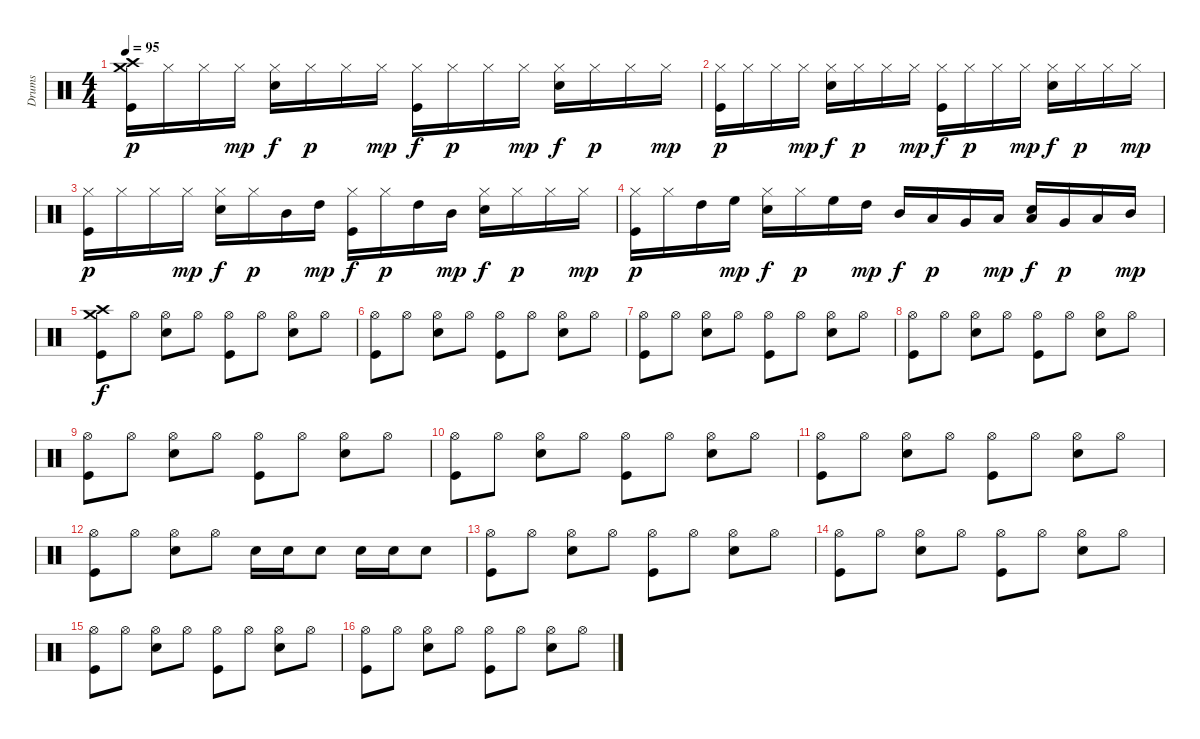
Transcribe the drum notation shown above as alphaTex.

\track ("Drums" "Drums") {instrument percussion}
\staff {score}
\articulation defaults
\ts (4 4)
\tempo 95
\clef neutral
\ks c
("Crash medium (hit)" "Crash high (hit)" "Kick (hit)").16{dy p} "Hi-Hat (closed)".16 "Hi-Hat (closed)".16 "Hi-Hat (closed)".16{dy mp} ("Hi-Hat (closed)" "Snare (hit) 2").16{dy f} "Hi-Hat (closed)".16{dy p} "Hi-Hat (closed)".16 "Hi-Hat (closed)".16{dy mp} ("Hi-Hat (closed)" "Kick (hit)").16{dy f} "Hi-Hat (closed)".16{dy p} "Hi-Hat (closed)".16 "Hi-Hat (closed)".16{dy mp} ("Hi-Hat (closed)" "Snare (hit) 2").16{dy f} "Hi-Hat (closed)".16{dy p} "Hi-Hat (closed)".16 "Hi-Hat (closed)".16{dy mp} |
("Hi-Hat (closed)" "Kick (hit)").16{dy p} "Hi-Hat (closed)".16 "Hi-Hat (closed)".16 "Hi-Hat (closed)".16{dy mp} ("Hi-Hat (closed)" "Snare (hit) 2").16{dy f} "Hi-Hat (closed)".16{dy p} "Hi-Hat (closed)".16 "Hi-Hat (closed)".16{dy mp} ("Hi-Hat (closed)" "Kick (hit)").16{dy f} "Hi-Hat (closed)".16{dy p} "Hi-Hat (closed)".16 "Hi-Hat (closed)".16{dy mp} ("Hi-Hat (closed)" "Snare (hit) 2").16{dy f} "Hi-Hat (closed)".16{dy p} "Hi-Hat (closed)".16 "Hi-Hat (closed)".16{dy mp} |
("Hi-Hat (closed)" "Kick (hit)").16{dy p} "Hi-Hat (closed)".16 "Hi-Hat (closed)".16 "Hi-Hat (closed)".16{dy mp} ("Hi-Hat (closed)" "Snare (hit) 2").16{dy f} "Hi-Hat (closed)".16{dy p} "Mid Tom (hit)".16 "High Tom (hit)".16{dy mp} ("Hi-Hat (closed)" "Kick (hit)").16{dy f} "Hi-Hat (closed)".16{dy p} "High Tom (hit)".16 "Mid Tom (hit)".16{dy mp} ("Hi-Hat (closed)" "Snare (hit) 2").16{dy f} "Hi-Hat (closed)".16{dy p} "Hi-Hat (closed)".16 "Hi-Hat (closed)".16{dy mp} |
("Hi-Hat (closed)" "Kick (hit)").16{dy p} "Hi-Hat (closed)".16 "High Tom (hit)".16 "High Floor Tom (hit)".16{dy mp} ("Hi-Hat (closed)" "Snare (hit) 2").16{dy f} "Hi-Hat (closed)".16{dy p} "High Floor Tom (hit)".16 "High Tom (hit)".16{dy mp} "Mid Tom (hit)".16{dy f} "Low Tom (hit)".16{dy p} "Very Low Tom (hit)".16 "Low Floor Tom (hit)".16{dy mp} ("Low Floor Tom (hit)" "Snare (hit) 2").16{dy f} "Very Low Tom (hit)".16{dy p} "Low Tom (hit)".16 "Mid Tom (hit)".16{dy mp} |
("Crash medium (hit)" "Crash high (hit)" "Kick (hit)").8{dy f} "Hi-Hat (open)".8 ("Hi-Hat (open)" "Electric Snare (hit)").8 "Hi-Hat (open)".8 ("Hi-Hat (open)" "Kick (hit)").8 "Hi-Hat (open)".8 ("Hi-Hat (open)" "Electric Snare (hit)").8 "Hi-Hat (open)".8 |
("Hi-Hat (open)" "Kick (hit)").8 "Hi-Hat (open)".8 ("Hi-Hat (open)" "Electric Snare (hit)").8 "Hi-Hat (open)".8 ("Hi-Hat (open)" "Kick (hit)").8 "Hi-Hat (open)".8 ("Hi-Hat (open)" "Electric Snare (hit)").8 "Hi-Hat (open)".8 |
("Hi-Hat (open)" "Kick (hit)").8 "Hi-Hat (open)".8 ("Hi-Hat (open)" "Electric Snare (hit)").8 "Hi-Hat (open)".8 ("Hi-Hat (open)" "Kick (hit)").8 "Hi-Hat (open)".8 ("Hi-Hat (open)" "Electric Snare (hit)").8 "Hi-Hat (open)".8 |
("Hi-Hat (open)" "Kick (hit)").8 "Hi-Hat (open)".8 ("Hi-Hat (open)" "Electric Snare (hit)").8 "Hi-Hat (open)".8 ("Hi-Hat (open)" "Kick (hit)").8 "Hi-Hat (open)".8 ("Hi-Hat (open)" "Electric Snare (hit)").8 "Hi-Hat (open)".8 |
("Hi-Hat (open)" "Kick (hit)").8 "Hi-Hat (open)".8 ("Hi-Hat (open)" "Electric Snare (hit)").8 "Hi-Hat (open)".8 ("Hi-Hat (open)" "Kick (hit)").8 "Hi-Hat (open)".8 ("Hi-Hat (open)" "Electric Snare (hit)").8 "Hi-Hat (open)".8 |
("Hi-Hat (open)" "Kick (hit)").8 "Hi-Hat (open)".8 ("Hi-Hat (open)" "Electric Snare (hit)").8 "Hi-Hat (open)".8 ("Hi-Hat (open)" "Kick (hit)").8 "Hi-Hat (open)".8 ("Hi-Hat (open)" "Electric Snare (hit)").8 "Hi-Hat (open)".8 |
("Hi-Hat (open)" "Kick (hit)").8 "Hi-Hat (open)".8 ("Hi-Hat (open)" "Electric Snare (hit)").8 "Hi-Hat (open)".8 ("Hi-Hat (open)" "Kick (hit)").8 "Hi-Hat (open)".8 ("Hi-Hat (open)" "Electric Snare (hit)").8 "Hi-Hat (open)".8 |
("Hi-Hat (open)" "Kick (hit)").8 "Hi-Hat (open)".8 ("Hi-Hat (open)" "Electric Snare (hit)").8 "Hi-Hat (open)".8 "Electric Snare (hit)".16 "Electric Snare (hit)".16 "Snare (hit) 2".8 "Electric Snare (hit)".16 "Electric Snare (hit)".16 "Snare (hit) 2".8 |
("Hi-Hat (open)" "Kick (hit)").8 "Hi-Hat (open)".8 ("Hi-Hat (open)" "Electric Snare (hit)").8 "Hi-Hat (open)".8 ("Hi-Hat (open)" "Kick (hit)").8 "Hi-Hat (open)".8 ("Hi-Hat (open)" "Electric Snare (hit)").8 "Hi-Hat (open)".8 |
("Hi-Hat (open)" "Kick (hit)").8 "Hi-Hat (open)".8 ("Hi-Hat (open)" "Electric Snare (hit)").8 "Hi-Hat (open)".8 ("Hi-Hat (open)" "Kick (hit)").8 "Hi-Hat (open)".8 ("Hi-Hat (open)" "Electric Snare (hit)").8 "Hi-Hat (open)".8 |
("Hi-Hat (open)" "Kick (hit)").8 "Hi-Hat (open)".8 ("Hi-Hat (open)" "Electric Snare (hit)").8 "Hi-Hat (open)".8 ("Hi-Hat (open)" "Kick (hit)").8 "Hi-Hat (open)".8 ("Hi-Hat (open)" "Electric Snare (hit)").8 "Hi-Hat (open)".8 |
("Hi-Hat (open)" "Kick (hit)").8 "Hi-Hat (open)".8 ("Hi-Hat (open)" "Electric Snare (hit)").8 "Hi-Hat (open)".8 ("Hi-Hat (open)" "Kick (hit)").8 "Hi-Hat (open)".8 ("Hi-Hat (open)" "Electric Snare (hit)").8 "Hi-Hat (open)".8
